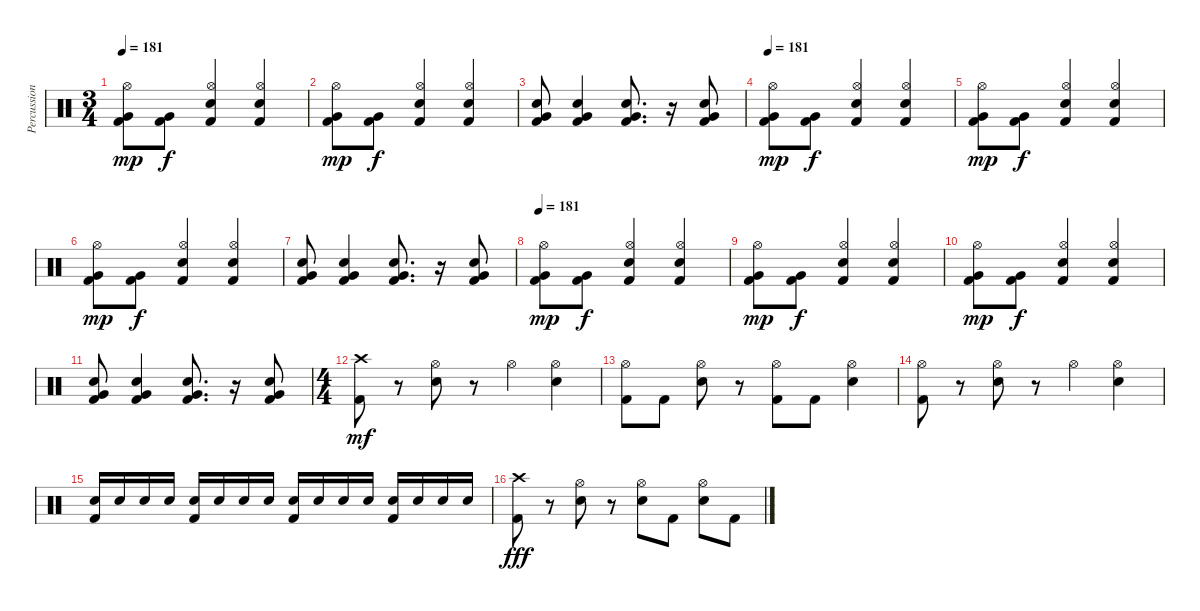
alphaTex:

\track ("Percussion" "Percussion") {instrument percussion}
\staff {score}
\articulation defaults
\ts (3 4)
\tempo 181
\clef neutral
\ks c
("Kick (hit) 2" "Very Low Tom (hit)" "Hi-Hat (open)").8{dy mp} ("Kick (hit) 2" "Very Low Tom (hit)").8{dy f} ("Electric Snare (hit)" "Kick (hit) 2" "Hi-Hat (open)").4 ("Electric Snare (hit)" "Kick (hit) 2" "Hi-Hat (open)").4 |
("Kick (hit) 2" "Very Low Tom (hit)" "Hi-Hat (open)").8{dy mp} ("Kick (hit) 2" "Very Low Tom (hit)").8{dy f} ("Electric Snare (hit)" "Kick (hit) 2" "Hi-Hat (open)").4 ("Electric Snare (hit)" "Kick (hit) 2" "Hi-Hat (open)").4 |
("Electric Snare (hit)" "Kick (hit) 2" "Very Low Tom (hit)").8 ("Electric Snare (hit)" "Kick (hit) 2" "Very Low Tom (hit)").4 ("Electric Snare (hit)" "Kick (hit) 2" "Very Low Tom (hit)").8{d} r.16 ("Electric Snare (hit)" "Kick (hit) 2" "Very Low Tom (hit)").8 |
\tempo 181
("Kick (hit) 2" "Very Low Tom (hit)" "Hi-Hat (open)").8{dy mp} ("Kick (hit) 2" "Very Low Tom (hit)").8{dy f} ("Electric Snare (hit)" "Kick (hit) 2" "Hi-Hat (open)").4 ("Electric Snare (hit)" "Kick (hit) 2" "Hi-Hat (open)").4 |
("Kick (hit) 2" "Very Low Tom (hit)" "Hi-Hat (open)").8{dy mp} ("Kick (hit) 2" "Very Low Tom (hit)").8{dy f} ("Electric Snare (hit)" "Kick (hit) 2" "Hi-Hat (open)").4 ("Electric Snare (hit)" "Kick (hit) 2" "Hi-Hat (open)").4 |
("Kick (hit) 2" "Very Low Tom (hit)" "Hi-Hat (open)").8{dy mp} ("Kick (hit) 2" "Very Low Tom (hit)").8{dy f} ("Electric Snare (hit)" "Kick (hit) 2" "Hi-Hat (open)").4 ("Electric Snare (hit)" "Kick (hit) 2" "Hi-Hat (open)").4 |
("Electric Snare (hit)" "Kick (hit) 2" "Very Low Tom (hit)").8 ("Electric Snare (hit)" "Kick (hit) 2" "Very Low Tom (hit)").4 ("Electric Snare (hit)" "Kick (hit) 2" "Very Low Tom (hit)").8{d} r.16 ("Electric Snare (hit)" "Kick (hit) 2" "Very Low Tom (hit)").8 |
\tempo 181
("Kick (hit) 2" "Very Low Tom (hit)" "Hi-Hat (open)").8{dy mp} ("Kick (hit) 2" "Very Low Tom (hit)").8{dy f} ("Electric Snare (hit)" "Kick (hit) 2" "Hi-Hat (open)").4 ("Electric Snare (hit)" "Kick (hit) 2" "Hi-Hat (open)").4 |
("Kick (hit) 2" "Very Low Tom (hit)" "Hi-Hat (open)").8{dy mp} ("Kick (hit) 2" "Very Low Tom (hit)").8{dy f} ("Electric Snare (hit)" "Kick (hit) 2" "Hi-Hat (open)").4 ("Electric Snare (hit)" "Kick (hit) 2" "Hi-Hat (open)").4 |
("Kick (hit) 2" "Very Low Tom (hit)" "Hi-Hat (open)").8{dy mp} ("Kick (hit) 2" "Very Low Tom (hit)").8{dy f} ("Electric Snare (hit)" "Kick (hit) 2" "Hi-Hat (open)").4 ("Electric Snare (hit)" "Kick (hit) 2" "Hi-Hat (open)").4 |
("Electric Snare (hit)" "Kick (hit) 2" "Very Low Tom (hit)").8 ("Electric Snare (hit)" "Kick (hit) 2" "Very Low Tom (hit)").4 ("Electric Snare (hit)" "Kick (hit) 2" "Very Low Tom (hit)").8{d} r.16 ("Electric Snare (hit)" "Kick (hit) 2" "Very Low Tom (hit)").8 |
\ts (4 4)
("Crash high (hit)" "Kick (hit) 2").8{dy mf} r.8 ("Electric Snare (hit)" "Hi-Hat (open)").8 r.8 "Hi-Hat (open)".4 ("Electric Snare (hit)" "Hi-Hat (open)").4 |
("Hi-Hat (open)" "Kick (hit) 2").8 "Kick (hit) 2".8 ("Electric Snare (hit)" "Hi-Hat (open)").8 r.8 ("Kick (hit) 2" "Hi-Hat (open)").8 "Kick (hit) 2".8 ("Electric Snare (hit)" "Hi-Hat (open)").4 |
("Hi-Hat (open)" "Kick (hit) 2").8 r.8 ("Electric Snare (hit)" "Hi-Hat (open)").8 r.8 "Hi-Hat (open)".4 ("Electric Snare (hit)" "Hi-Hat (open)").4 |
("Electric Snare (hit)" "Kick (hit) 2").16 "Electric Snare (hit)".16 "Electric Snare (hit)".16 "Electric Snare (hit)".16 ("Electric Snare (hit)" "Kick (hit) 2").16 "Electric Snare (hit)".16 "Electric Snare (hit)".16 "Electric Snare (hit)".16 ("Electric Snare (hit)" "Kick (hit) 2").16 "Electric Snare (hit)".16 "Electric Snare (hit)".16 "Electric Snare (hit)".16 ("Electric Snare (hit)" "Kick (hit) 2").16 "Electric Snare (hit)".16 "Electric Snare (hit)".16 "Electric Snare (hit)".16 |
("Crash high (hit)" "Kick (hit) 2").8{dy fff} r.8 ("Electric Snare (hit)" "Hi-Hat (open)").8 r.8 ("Electric Snare (hit)" "Hi-Hat (open)").8 "Kick (hit) 2".8 ("Electric Snare (hit)" "Hi-Hat (open)").8 "Kick (hit) 2".8
